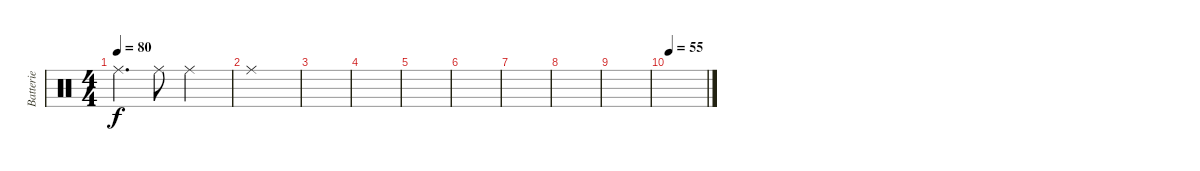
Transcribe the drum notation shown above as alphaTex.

\track ("Batterie" "Batterie") {instrument percussion}
\staff {score}
\articulation defaults
\ts (4 4)
\tempo 80
\clef neutral
\ks c "Ride (middle)".4{d dy f} "Ride (middle)".8 "Ride (middle)".2
|
"Ride (middle)".1 |
|
|
|
|
|
|
|
\tempo 55
